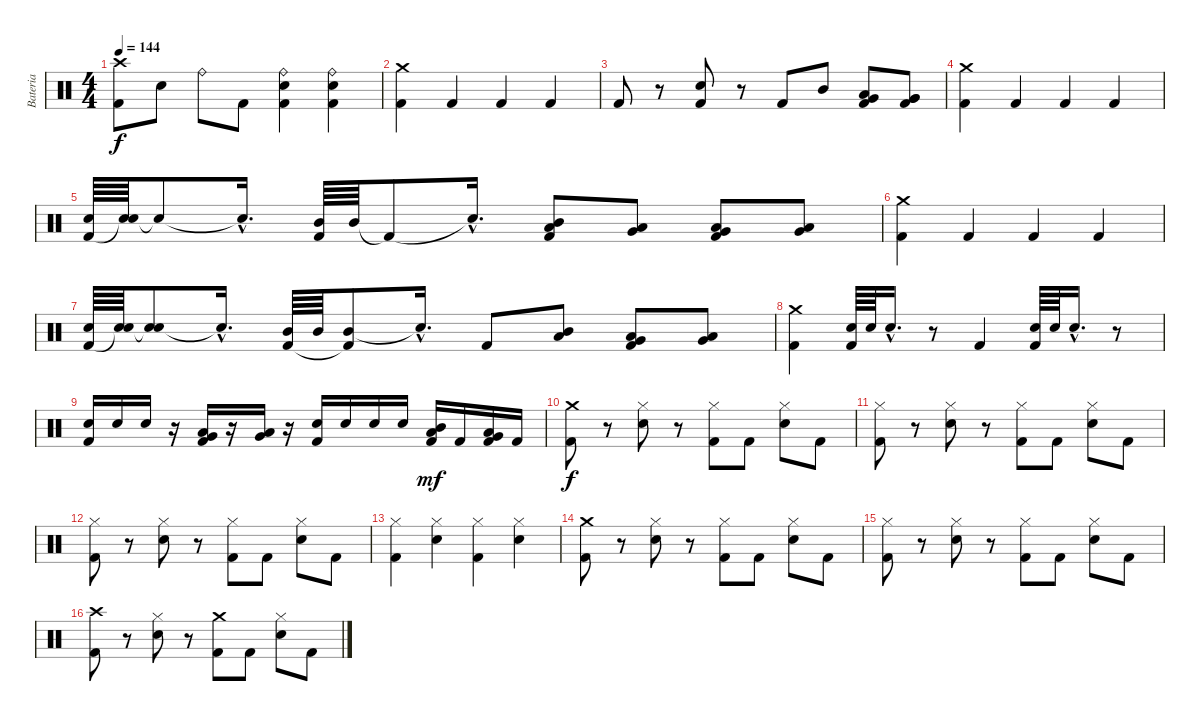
\track ("Bateria" "Bateria") {instrument percussion}
\staff {score}
\articulation defaults
\ts (4 4)
\tempo 144
\clef neutral
\ks c
("Crash high (hit)" "Kick (hit) 2").8{dy f} "Electric Snare (hit)".8 "Ride (bell)".8 "Kick (hit) 2".8 ("Ride (bell)" "Electric Snare (hit)" "Kick (hit) 2").4 ("Ride (bell)" "Electric Snare (hit)" "Kick (hit) 2").4 |
("Crash medium (hit)" "Kick (hit) 2").4 "Kick (hit) 2".4 "Kick (hit) 2".4 "Kick (hit) 2".4 |
"Kick (hit) 2".8 r.8 ("Electric Snare (hit)" "Kick (hit) 2").8 r.8 "Kick (hit) 2".8 "Mid Tom (hit)".8 ("Very Low Tom (hit)" "Low Tom (hit)" "Kick (hit) 2").8 ("Very Low Tom (hit)" "Very Low Tom (hit)" "Kick (hit) 2").8 |
("Crash medium (hit)" "Kick (hit) 2").4 "Kick (hit) 2".4 "Kick (hit) 2".4 "Kick (hit) 2".4 |
("Electric Snare (hit)" "Kick (hit) 2").64 ("Electric Snare (hit)" "Snare (hit)"{t}).64 "Snare (hit)"{t}.8 "Snare (hit)"{hac t}.16{d} ("Mid Tom (hit)" "Kick (hit) 2").64 "Mid Tom (hit)".64 "Kick (hit) 2"{t}.8 "Snare (hit)"{hac t}.16{d} ("Low Tom (hit)" "Mid Tom (hit)" "Kick (hit) 2").8 ("Very Low Tom (hit)" "Low Tom (hit)").8 ("Low Floor Tom (hit)" "Very Low Tom (hit)" "Kick (hit) 2").8 ("Low Floor Tom (hit)" "Very Low Tom (hit)").8 |
("Crash medium (hit)" "Kick (hit) 2").4 "Kick (hit) 2".4 "Kick (hit) 2".4 "Kick (hit) 2".4 |
("Electric Snare (hit)" "Kick (hit) 2").64 ("Electric Snare (hit)" "Snare (hit)"{t}).64 ("Electric Snare (hit)" "Snare (hit)"{t}).8 "Snare (hit)"{hac t}.16{d} ("Mid Tom (hit)" "Kick (hit) 2").64 "Mid Tom (hit)".64 ("Mid Tom (hit)" "Kick (hit) 2"{t}).8 "Snare (hit)"{hac t}.16{d} "Kick (hit) 2".8 ("Low Tom (hit)" "Mid Tom (hit)").8 ("Very Low Tom (hit)" "Low Tom (hit)" "Kick (hit) 2").8 ("Low Floor Tom (hit)" "Very Low Tom (hit)").8 |
("Crash medium (hit)" "Kick (hit) 2").4 ("Electric Snare (hit)" "Kick (hit) 2").64 "Electric Snare (hit)".64 "Electric Snare (hit)"{hac}.16{d} r.8 "Kick (hit) 2".4 ("Electric Snare (hit)" "Kick (hit) 2").64 "Electric Snare (hit)".64 "Electric Snare (hit)"{hac}.16{d} r.8 |
("Electric Snare (hit)" "Kick (hit) 2").16 "Electric Snare (hit)".16 "Electric Snare (hit)".16 r.16 ("Very Low Tom (hit)" "Low Tom (hit)" "Kick (hit) 2").16 r.16 ("Very Low Tom (hit)" "Low Tom (hit)").16 r.16 ("Electric Snare (hit)" "Kick (hit) 2").16 "Electric Snare (hit)".16 "Electric Snare (hit)".16 "Electric Snare (hit)".16 ("Low Tom (hit)" "Mid Tom (hit)" "Kick (hit) 2").16{dy mf} "Kick (hit) 2".16 ("Very Low Tom (hit)" "Low Tom (hit)" "Kick (hit) 2").16 "Kick (hit) 2".16 |
("Crash medium (hit)" "Kick (hit) 2").8{dy f} r.8 ("Hi-Hat (closed)" "Electric Snare (hit)").8 r.8 ("Hi-Hat (closed)" "Kick (hit) 2").8 "Kick (hit) 2".8 ("Hi-Hat (closed)" "Electric Snare (hit)").8 "Kick (hit) 2".8 |
("Hi-Hat (closed)" "Kick (hit) 2").8 r.8 ("Hi-Hat (closed)" "Electric Snare (hit)").8 r.8 ("Hi-Hat (closed)" "Kick (hit) 2").8 "Kick (hit) 2".8 ("Hi-Hat (closed)" "Electric Snare (hit)").8 "Kick (hit) 2".8 |
("Hi-Hat (closed)" "Kick (hit) 2").8 r.8 ("Hi-Hat (closed)" "Electric Snare (hit)").8 r.8 ("Hi-Hat (closed)" "Kick (hit) 2").8 "Kick (hit) 2".8 ("Hi-Hat (closed)" "Electric Snare (hit)").8 "Kick (hit) 2".8 |
("Hi-Hat (closed)" "Kick (hit) 2").4 ("Hi-Hat (closed)" "Electric Snare (hit)").4 ("Hi-Hat (closed)" "Kick (hit) 2").4 ("Hi-Hat (closed)" "Electric Snare (hit)").4 |
("Crash medium (hit)" "Kick (hit) 2").8 r.8 ("Hi-Hat (closed)" "Electric Snare (hit)").8 r.8 ("Hi-Hat (closed)" "Kick (hit) 2").8 "Kick (hit) 2".8 ("Hi-Hat (closed)" "Electric Snare (hit)").8 "Kick (hit) 2".8 |
("Hi-Hat (closed)" "Kick (hit) 2").8 r.8 ("Hi-Hat (closed)" "Electric Snare (hit)").8 r.8 ("Hi-Hat (closed)" "Kick (hit) 2").8 "Kick (hit) 2".8 ("Hi-Hat (closed)" "Electric Snare (hit)").8 "Kick (hit) 2".8 |
("Crash high (hit)" "Kick (hit) 2").8 r.8 ("Hi-Hat (closed)" "Electric Snare (hit)").8 r.8 ("Crash medium (hit)" "Kick (hit) 2").8 "Kick (hit) 2".8 ("Hi-Hat (closed)" "Electric Snare (hit)").8 "Kick (hit) 2".8
